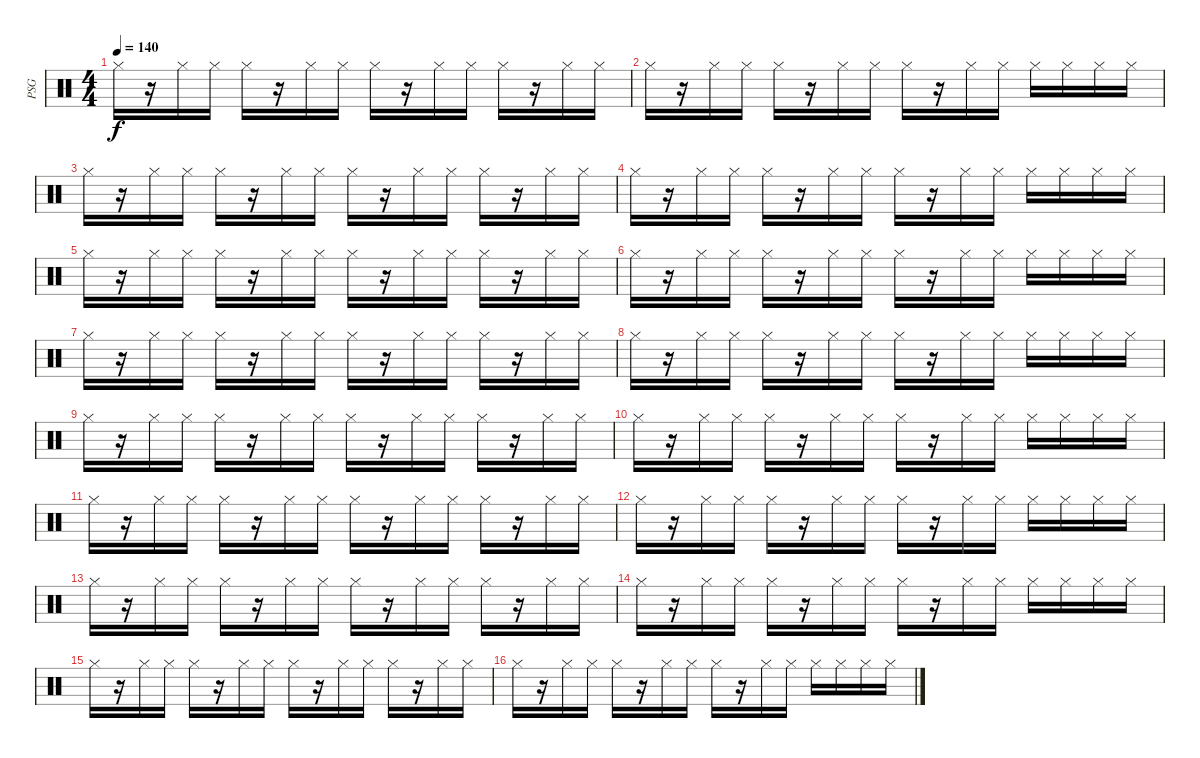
\track ("PSG" "PSG") {instrument percussion}
\staff {score}
\articulation defaults
\ts (4 4)
\tempo 140
\clef neutral
\ks c "Hi-Hat (closed)".16{dy f}
r.16 "Hi-Hat (closed)".16 "Hi-Hat (closed)".16 "Hi-Hat (closed)".16 r.16 "Hi-Hat (closed)".16 "Hi-Hat (closed)".16 "Hi-Hat (closed)".16 r.16 "Hi-Hat (closed)".16 "Hi-Hat (closed)".16 "Hi-Hat (closed)".16 r.16 "Hi-Hat (closed)".16 "Hi-Hat (closed)".16 |
"Hi-Hat (closed)".16 r.16 "Hi-Hat (closed)".16 "Hi-Hat (closed)".16 "Hi-Hat (closed)".16 r.16 "Hi-Hat (closed)".16 "Hi-Hat (closed)".16 "Hi-Hat (closed)".16 r.16 "Hi-Hat (closed)".16 "Hi-Hat (closed)".16 "Hi-Hat (closed)".16 "Hi-Hat (closed)".16 "Hi-Hat (closed)".16 "Hi-Hat (closed)".16 |
"Hi-Hat (closed)".16 r.16 "Hi-Hat (closed)".16 "Hi-Hat (closed)".16 "Hi-Hat (closed)".16 r.16 "Hi-Hat (closed)".16 "Hi-Hat (closed)".16 "Hi-Hat (closed)".16 r.16 "Hi-Hat (closed)".16 "Hi-Hat (closed)".16 "Hi-Hat (closed)".16 r.16 "Hi-Hat (closed)".16 "Hi-Hat (closed)".16 |
"Hi-Hat (closed)".16 r.16 "Hi-Hat (closed)".16 "Hi-Hat (closed)".16 "Hi-Hat (closed)".16 r.16 "Hi-Hat (closed)".16 "Hi-Hat (closed)".16 "Hi-Hat (closed)".16 r.16 "Hi-Hat (closed)".16 "Hi-Hat (closed)".16 "Hi-Hat (closed)".16 "Hi-Hat (closed)".16 "Hi-Hat (closed)".16 "Hi-Hat (closed)".16 |
"Hi-Hat (closed)".16 r.16 "Hi-Hat (closed)".16 "Hi-Hat (closed)".16 "Hi-Hat (closed)".16 r.16 "Hi-Hat (closed)".16 "Hi-Hat (closed)".16 "Hi-Hat (closed)".16 r.16 "Hi-Hat (closed)".16 "Hi-Hat (closed)".16 "Hi-Hat (closed)".16 r.16 "Hi-Hat (closed)".16 "Hi-Hat (closed)".16 |
"Hi-Hat (closed)".16 r.16 "Hi-Hat (closed)".16 "Hi-Hat (closed)".16 "Hi-Hat (closed)".16 r.16 "Hi-Hat (closed)".16 "Hi-Hat (closed)".16 "Hi-Hat (closed)".16 r.16 "Hi-Hat (closed)".16 "Hi-Hat (closed)".16 "Hi-Hat (closed)".16 "Hi-Hat (closed)".16 "Hi-Hat (closed)".16 "Hi-Hat (closed)".16 |
"Hi-Hat (closed)".16 r.16 "Hi-Hat (closed)".16 "Hi-Hat (closed)".16 "Hi-Hat (closed)".16 r.16 "Hi-Hat (closed)".16 "Hi-Hat (closed)".16 "Hi-Hat (closed)".16 r.16 "Hi-Hat (closed)".16 "Hi-Hat (closed)".16 "Hi-Hat (closed)".16 r.16 "Hi-Hat (closed)".16 "Hi-Hat (closed)".16 |
"Hi-Hat (closed)".16 r.16 "Hi-Hat (closed)".16 "Hi-Hat (closed)".16 "Hi-Hat (closed)".16 r.16 "Hi-Hat (closed)".16 "Hi-Hat (closed)".16 "Hi-Hat (closed)".16 r.16 "Hi-Hat (closed)".16 "Hi-Hat (closed)".16 "Hi-Hat (closed)".16 "Hi-Hat (closed)".16 "Hi-Hat (closed)".16 "Hi-Hat (closed)".16 |
"Hi-Hat (closed)".16 r.16 "Hi-Hat (closed)".16 "Hi-Hat (closed)".16 "Hi-Hat (closed)".16 r.16 "Hi-Hat (closed)".16 "Hi-Hat (closed)".16 "Hi-Hat (closed)".16 r.16 "Hi-Hat (closed)".16 "Hi-Hat (closed)".16 "Hi-Hat (closed)".16 r.16 "Hi-Hat (closed)".16 "Hi-Hat (closed)".16 |
"Hi-Hat (closed)".16 r.16 "Hi-Hat (closed)".16 "Hi-Hat (closed)".16 "Hi-Hat (closed)".16 r.16 "Hi-Hat (closed)".16 "Hi-Hat (closed)".16 "Hi-Hat (closed)".16 r.16 "Hi-Hat (closed)".16 "Hi-Hat (closed)".16 "Hi-Hat (closed)".16 "Hi-Hat (closed)".16 "Hi-Hat (closed)".16 "Hi-Hat (closed)".16 |
"Hi-Hat (closed)".16 r.16 "Hi-Hat (closed)".16 "Hi-Hat (closed)".16 "Hi-Hat (closed)".16 r.16 "Hi-Hat (closed)".16 "Hi-Hat (closed)".16 "Hi-Hat (closed)".16 r.16 "Hi-Hat (closed)".16 "Hi-Hat (closed)".16 "Hi-Hat (closed)".16 r.16 "Hi-Hat (closed)".16 "Hi-Hat (closed)".16 |
"Hi-Hat (closed)".16 r.16 "Hi-Hat (closed)".16 "Hi-Hat (closed)".16 "Hi-Hat (closed)".16 r.16 "Hi-Hat (closed)".16 "Hi-Hat (closed)".16 "Hi-Hat (closed)".16 r.16 "Hi-Hat (closed)".16 "Hi-Hat (closed)".16 "Hi-Hat (closed)".16 "Hi-Hat (closed)".16 "Hi-Hat (closed)".16 "Hi-Hat (closed)".16 |
"Hi-Hat (closed)".16 r.16 "Hi-Hat (closed)".16 "Hi-Hat (closed)".16 "Hi-Hat (closed)".16 r.16 "Hi-Hat (closed)".16 "Hi-Hat (closed)".16 "Hi-Hat (closed)".16 r.16 "Hi-Hat (closed)".16 "Hi-Hat (closed)".16 "Hi-Hat (closed)".16 r.16 "Hi-Hat (closed)".16 "Hi-Hat (closed)".16 |
"Hi-Hat (closed)".16 r.16 "Hi-Hat (closed)".16 "Hi-Hat (closed)".16 "Hi-Hat (closed)".16 r.16 "Hi-Hat (closed)".16 "Hi-Hat (closed)".16 "Hi-Hat (closed)".16 r.16 "Hi-Hat (closed)".16 "Hi-Hat (closed)".16 "Hi-Hat (closed)".16 "Hi-Hat (closed)".16 "Hi-Hat (closed)".16 "Hi-Hat (closed)".16 |
"Hi-Hat (closed)".16 r.16 "Hi-Hat (closed)".16 "Hi-Hat (closed)".16 "Hi-Hat (closed)".16 r.16 "Hi-Hat (closed)".16 "Hi-Hat (closed)".16 "Hi-Hat (closed)".16 r.16 "Hi-Hat (closed)".16 "Hi-Hat (closed)".16 "Hi-Hat (closed)".16 r.16 "Hi-Hat (closed)".16 "Hi-Hat (closed)".16 |
"Hi-Hat (closed)".16 r.16 "Hi-Hat (closed)".16 "Hi-Hat (closed)".16 "Hi-Hat (closed)".16 r.16 "Hi-Hat (closed)".16 "Hi-Hat (closed)".16 "Hi-Hat (closed)".16 r.16 "Hi-Hat (closed)".16 "Hi-Hat (closed)".16 "Hi-Hat (closed)".16 "Hi-Hat (closed)".16 "Hi-Hat (closed)".16 "Hi-Hat (closed)".16
